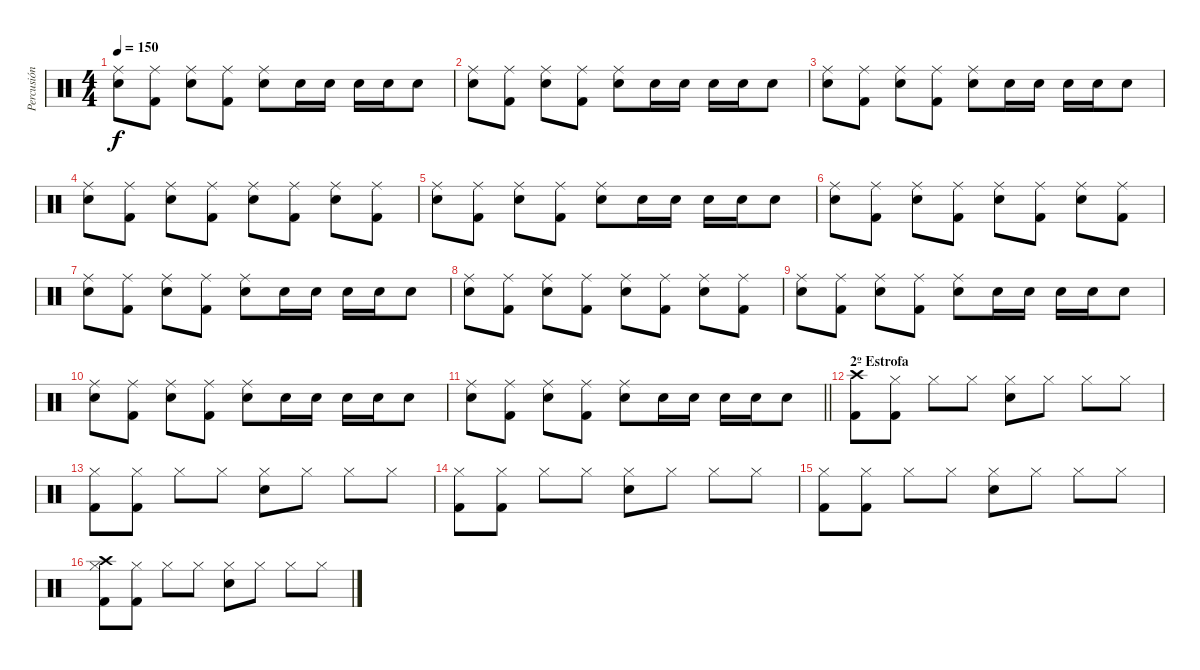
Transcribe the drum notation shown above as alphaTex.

\track ("Percusión" "Percusión") {instrument percussion}
\staff {score}
\articulation defaults
\ts (4 4)
\tempo 150
\clef neutral
\ks c
("Ride (middle)" "Snare (hit) 2").8{dy f} ("Ride (middle)" "Kick (hit) 2").8 ("Ride (middle)" "Snare (hit) 2").8 ("Ride (middle)" "Kick (hit) 2").8 ("Ride (middle)" "Snare (hit) 2").8 "Snare (hit) 2".16 "Snare (hit) 2".16 "Snare (hit) 2".16 "Snare (hit) 2".16 "Snare (hit) 2".8 |
("Ride (middle)" "Snare (hit) 2").8 ("Ride (middle)" "Kick (hit) 2").8 ("Ride (middle)" "Snare (hit) 2").8 ("Ride (middle)" "Kick (hit) 2").8 ("Ride (middle)" "Snare (hit) 2").8 "Snare (hit) 2".16 "Snare (hit) 2".16 "Snare (hit) 2".16 "Snare (hit) 2".16 "Snare (hit) 2".8 |
("Ride (middle)" "Snare (hit) 2").8 ("Ride (middle)" "Kick (hit) 2").8 ("Ride (middle)" "Snare (hit) 2").8 ("Ride (middle)" "Kick (hit) 2").8 ("Ride (middle)" "Snare (hit) 2").8 "Snare (hit) 2".16 "Snare (hit) 2".16 "Snare (hit) 2".16 "Snare (hit) 2".16 "Snare (hit) 2".8 |
("Ride (middle)" "Snare (hit) 2").8 ("Ride (middle)" "Kick (hit) 2").8 ("Ride (middle)" "Snare (hit) 2").8 ("Ride (middle)" "Kick (hit) 2").8 ("Ride (middle)" "Snare (hit) 2").8 ("Ride (middle)" "Kick (hit) 2").8 ("Ride (middle)" "Snare (hit) 2").8 ("Ride (middle)" "Kick (hit) 2").8 |
("Ride (middle)" "Snare (hit) 2").8 ("Ride (middle)" "Kick (hit) 2").8 ("Ride (middle)" "Snare (hit) 2").8 ("Ride (middle)" "Kick (hit) 2").8 ("Ride (middle)" "Snare (hit) 2").8 "Snare (hit) 2".16 "Snare (hit) 2".16 "Snare (hit) 2".16 "Snare (hit) 2".16 "Snare (hit) 2".8 |
("Ride (middle)" "Snare (hit) 2").8 ("Ride (middle)" "Kick (hit) 2").8 ("Ride (middle)" "Snare (hit) 2").8 ("Ride (middle)" "Kick (hit) 2").8 ("Ride (middle)" "Snare (hit) 2").8 ("Ride (middle)" "Kick (hit) 2").8 ("Ride (middle)" "Snare (hit) 2").8 ("Ride (middle)" "Kick (hit) 2").8 |
("Ride (middle)" "Snare (hit) 2").8 ("Ride (middle)" "Kick (hit) 2").8 ("Ride (middle)" "Snare (hit) 2").8 ("Ride (middle)" "Kick (hit) 2").8 ("Ride (middle)" "Snare (hit) 2").8 "Snare (hit) 2".16 "Snare (hit) 2".16 "Snare (hit) 2".16 "Snare (hit) 2".16 "Snare (hit) 2".8 |
("Ride (middle)" "Snare (hit) 2").8 ("Ride (middle)" "Kick (hit) 2").8 ("Ride (middle)" "Snare (hit) 2").8 ("Ride (middle)" "Kick (hit) 2").8 ("Ride (middle)" "Snare (hit) 2").8 ("Ride (middle)" "Kick (hit) 2").8 ("Ride (middle)" "Snare (hit) 2").8 ("Ride (middle)" "Kick (hit) 2").8 |
("Ride (middle)" "Snare (hit) 2").8 ("Ride (middle)" "Kick (hit) 2").8 ("Ride (middle)" "Snare (hit) 2").8 ("Ride (middle)" "Kick (hit) 2").8 ("Ride (middle)" "Snare (hit) 2").8 "Snare (hit) 2".16 "Snare (hit) 2".16 "Snare (hit) 2".16 "Snare (hit) 2".16 "Snare (hit) 2".8 |
("Ride (middle)" "Snare (hit) 2").8 ("Ride (middle)" "Kick (hit) 2").8 ("Ride (middle)" "Snare (hit) 2").8 ("Ride (middle)" "Kick (hit) 2").8 ("Ride (middle)" "Snare (hit) 2").8 "Snare (hit) 2".16 "Snare (hit) 2".16 "Snare (hit) 2".16 "Snare (hit) 2".16 "Snare (hit) 2".8 |
\barLineRight lightlight
("Ride (middle)" "Snare (hit) 2").8 ("Ride (middle)" "Kick (hit) 2").8 ("Ride (middle)" "Snare (hit) 2").8 ("Ride (middle)" "Kick (hit) 2").8 ("Ride (middle)" "Snare (hit) 2").8 "Snare (hit) 2".16 "Snare (hit) 2".16 "Snare (hit) 2".16 "Snare (hit) 2".16 "Snare (hit) 2".8 |
\section ("" "2º Estrofa")
("Crash high (hit)" "Kick (hit) 2").8 ("Hi-Hat (closed)" "Kick (hit) 2").8 "Hi-Hat (closed)".8 "Hi-Hat (closed)".8 ("Hi-Hat (closed)" "Snare (hit) 2").8 "Hi-Hat (closed)".8 "Hi-Hat (closed)".8 "Hi-Hat (closed)".8 |
("Hi-Hat (closed)" "Kick (hit) 2").8 ("Hi-Hat (closed)" "Kick (hit) 2").8 "Hi-Hat (closed)".8 "Hi-Hat (closed)".8 ("Hi-Hat (closed)" "Snare (hit) 2").8 "Hi-Hat (closed)".8 "Hi-Hat (closed)".8 "Hi-Hat (closed)".8 |
("Hi-Hat (closed)" "Kick (hit) 2").8 ("Hi-Hat (closed)" "Kick (hit) 2").8 "Hi-Hat (closed)".8 "Hi-Hat (closed)".8 ("Hi-Hat (closed)" "Snare (hit) 2").8 "Hi-Hat (closed)".8 "Hi-Hat (closed)".8 "Hi-Hat (closed)".8 |
("Hi-Hat (closed)" "Kick (hit) 2").8 ("Hi-Hat (closed)" "Kick (hit) 2").8 "Hi-Hat (closed)".8 "Hi-Hat (closed)".8 ("Hi-Hat (closed)" "Snare (hit) 2").8 "Hi-Hat (closed)".8 "Hi-Hat (closed)".8 "Hi-Hat (closed)".8 |
("Crash high (hit)" "Hi-Hat (closed)" "Kick (hit) 2").8 ("Hi-Hat (closed)" "Kick (hit) 2").8 "Hi-Hat (closed)".8 "Hi-Hat (closed)".8 ("Hi-Hat (closed)" "Snare (hit) 2").8 "Hi-Hat (closed)".8 "Hi-Hat (closed)".8 "Hi-Hat (closed)".8
